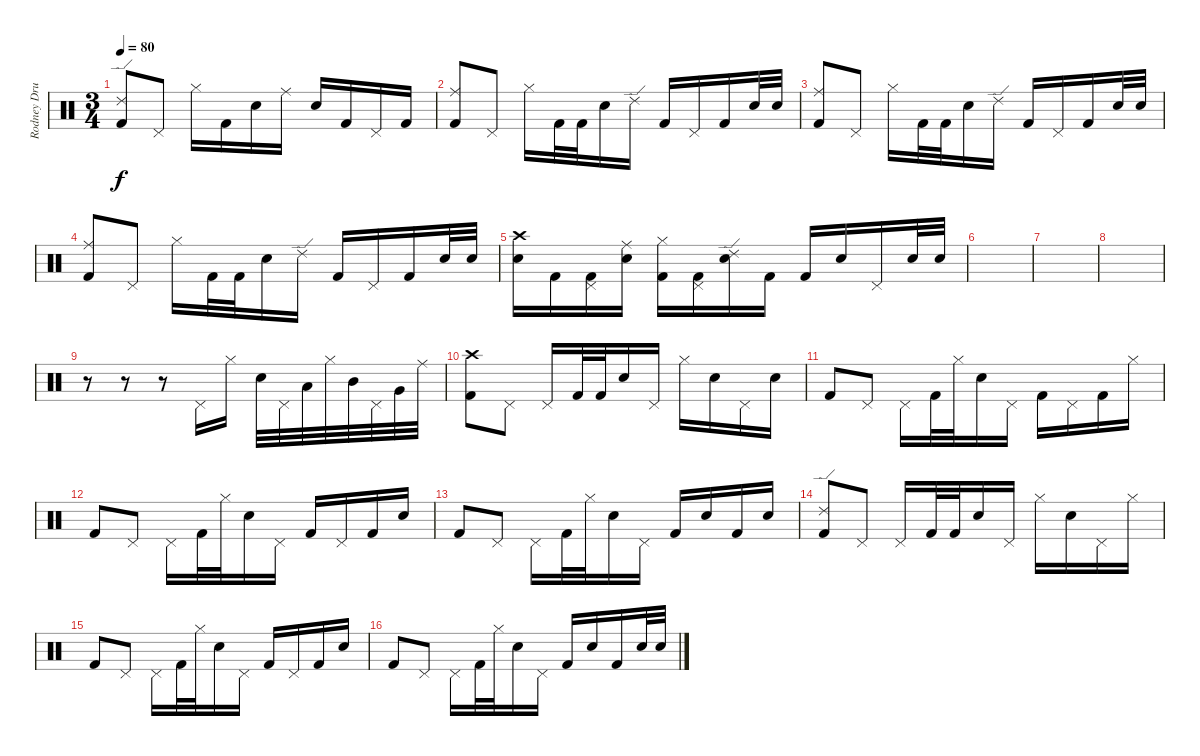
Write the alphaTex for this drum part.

\track ("Rodney Drums" "Rodney Dru") {instrument percussion}
\staff {score}
\articulation defaults
\ts (3 4)
\tempo 80
\clef neutral
\ks c
("Kick (hit) 2" "Ride (edge) 2").8{dy f} "Pedal Hi-Hat (hit)".8 "Hi-Hat (closed)".16 "Kick (hit) 2".16 "Electric Snare (hit)".16 "Ride (middle)".16 "Electric Snare (hit)".16 "Kick (hit) 2".16 "Pedal Hi-Hat (hit)".16 "Kick (hit) 2".16 |
("Kick (hit) 2" "Ride (middle)").8 "Pedal Hi-Hat (hit)".8 "Hi-Hat (closed)".16 "Kick (hit) 2".32 "Kick (hit) 2".32 "Electric Snare (hit)".16 "Ride (edge) 2".16 "Kick (hit) 2".16 "Pedal Hi-Hat (hit)".16 "Kick (hit) 2".16 "Electric Snare (hit)".32 "Electric Snare (hit)".32 |
("Kick (hit) 2" "Ride (middle)").8 "Pedal Hi-Hat (hit)".8 "Hi-Hat (closed)".16 "Kick (hit) 2".32 "Kick (hit) 2".32 "Electric Snare (hit)".16 "Ride (edge) 2".16 "Kick (hit) 2".16 "Pedal Hi-Hat (hit)".16 "Kick (hit) 2".16 "Electric Snare (hit)".32 "Electric Snare (hit)".32 |
("Kick (hit) 2" "Ride (middle)").8 "Pedal Hi-Hat (hit)".8 "Hi-Hat (closed)".16 "Kick (hit) 2".32 "Kick (hit) 2".32 "Electric Snare (hit)".16 "Ride (edge) 2".16 "Kick (hit) 2".16 "Pedal Hi-Hat (hit)".16 "Kick (hit) 2".16 "Electric Snare (hit)".32 "Electric Snare (hit)".32 |
("Crash high (hit)" "Electric Snare (hit)").16 "Kick (hit) 2".16 ("Pedal Hi-Hat (hit)" "Kick (hit) 2").16 ("Electric Snare (hit)" "Ride (middle)").16 ("Hi-Hat (closed)" "Kick (hit) 2").16 ("Pedal Hi-Hat (hit)" "Kick (hit) 2").16 ("Electric Snare (hit)" "Ride (edge) 2").16 "Kick (hit) 2".16 "Kick (hit) 2".16 "Electric Snare (hit)".16 "Pedal Hi-Hat (hit)".16 "Electric Snare (hit)".32 "Electric Snare (hit)".32 |
|
|
|
r.8 r.8 r.8 "Pedal Hi-Hat (hit)".16 "Hi-Hat (closed)".16 "Electric Snare (hit)".32 "Pedal Hi-Hat (hit)".32 "Low Tom (hit)".32 "Hi-Hat (closed)".32 "Mid Tom (hit)".32 "Pedal Hi-Hat (hit)".32 "Very Low Tom (hit)".32 "Ride (middle)".32 |
("Crash high (hit)" "Kick (hit) 2").8 "Pedal Hi-Hat (hit)".8 "Pedal Hi-Hat (hit)".16 "Kick (hit) 2".32 "Kick (hit) 2".32 "Electric Snare (hit)".16 "Pedal Hi-Hat (hit)".16 "Hi-Hat (closed)".16 "Electric Snare (hit)".16 "Pedal Hi-Hat (hit)".16 "Electric Snare (hit)".16 |
"Kick (hit) 2".8 "Pedal Hi-Hat (hit)".8 "Pedal Hi-Hat (hit)".16 "Kick (hit) 2".32 "Hi-Hat (closed)".32 "Electric Snare (hit)".16 "Pedal Hi-Hat (hit)".16 "Kick (hit) 2".16 "Pedal Hi-Hat (hit)".16 "Kick (hit) 2".16 "Hi-Hat (closed)".16 |
"Kick (hit) 2".8 "Pedal Hi-Hat (hit)".8 "Pedal Hi-Hat (hit)".16 "Kick (hit) 2".32 "Hi-Hat (closed)".32 "Electric Snare (hit)".16 "Pedal Hi-Hat (hit)".16 "Kick (hit) 2".16 "Pedal Hi-Hat (hit)".16 "Kick (hit) 2".16 "Electric Snare (hit)".16 |
"Kick (hit) 2".8 "Pedal Hi-Hat (hit)".8 "Pedal Hi-Hat (hit)".16 "Kick (hit) 2".32 "Hi-Hat (closed)".32 "Electric Snare (hit)".16 "Pedal Hi-Hat (hit)".16 "Kick (hit) 2".16 "Electric Snare (hit)".16 "Kick (hit) 2".16 "Electric Snare (hit)".16 |
("Ride (edge) 2" "Kick (hit) 2").8 "Pedal Hi-Hat (hit)".8 "Pedal Hi-Hat (hit)".16 "Kick (hit) 2".32 "Kick (hit) 2".32 "Electric Snare (hit)".16 "Pedal Hi-Hat (hit)".16 "Hi-Hat (closed)".16 "Electric Snare (hit)".16 "Pedal Hi-Hat (hit)".16 "Hi-Hat (closed)".16 |
"Kick (hit) 2".8 "Pedal Hi-Hat (hit)".8 "Pedal Hi-Hat (hit)".16 "Kick (hit) 2".32 "Hi-Hat (closed)".32 "Electric Snare (hit)".16 "Pedal Hi-Hat (hit)".16 "Kick (hit) 2".16 "Pedal Hi-Hat (hit)".16 "Kick (hit) 2".16 "Electric Snare (hit)".16 |
"Kick (hit) 2".8 "Pedal Hi-Hat (hit)".8 "Pedal Hi-Hat (hit)".16 "Kick (hit) 2".32 "Hi-Hat (closed)".32 "Electric Snare (hit)".16 "Pedal Hi-Hat (hit)".16 "Kick (hit) 2".16 "Electric Snare (hit)".16 "Kick (hit) 2".16 "Electric Snare (hit)".32 "Electric Snare (hit)".32
